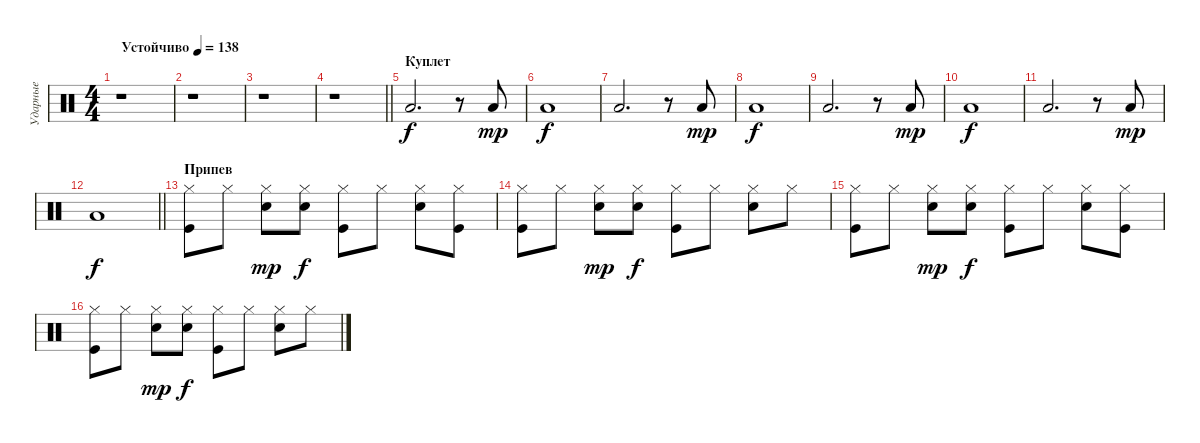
\track ("Ударные" "Ударные") {instrument percussion}
\staff {score}
\articulation defaults
\ts (4 4)
\tempo (138 "Устойчиво")
\clef neutral
\ks c
r.1{dy f} |
r.1 |
r.1 |
\barLineRight lightlight
r.1 |
\section ("" "Куплет")
"Low Floor Tom (hit)".2{d} r.8 "Low Floor Tom (hit)".8{dy mp} |
"Low Floor Tom (hit)".1{dy f} |
"Low Floor Tom (hit)".2{d} r.8 "Low Floor Tom (hit)".8{dy mp} |
"Low Floor Tom (hit)".1{dy f} |
"Low Floor Tom (hit)".2{d} r.8 "Low Floor Tom (hit)".8{dy mp} |
"Low Floor Tom (hit)".1{dy f} |
"Low Floor Tom (hit)".2{d} r.8 "Low Floor Tom (hit)".8{dy mp} |
\barLineRight lightlight "Low Floor Tom (hit)".1{dy f}
|
\section ("" "Припев")
("Hi-Hat (closed)" "Kick (hit)").8 "Hi-Hat (closed)".8 ("Hi-Hat (closed)" "Snare (hit) 2").8{dy mp} ("Hi-Hat (closed)" "Snare (hit) 2").8{dy f} ("Hi-Hat (closed)" "Kick (hit)").8 "Hi-Hat (closed)".8 ("Hi-Hat (closed)" "Snare (hit) 2").8 ("Hi-Hat (closed)" "Kick (hit)").8 |
("Hi-Hat (closed)" "Kick (hit)").8 "Hi-Hat (closed)".8 ("Hi-Hat (closed)" "Snare (hit) 2").8{dy mp} ("Hi-Hat (closed)" "Snare (hit) 2").8{dy f} ("Hi-Hat (closed)" "Kick (hit)").8 "Hi-Hat (closed)".8 ("Hi-Hat (closed)" "Snare (hit) 2").8 "Hi-Hat (closed)".8 |
("Hi-Hat (closed)" "Kick (hit)").8 "Hi-Hat (closed)".8 ("Hi-Hat (closed)" "Snare (hit) 2").8{dy mp} ("Hi-Hat (closed)" "Snare (hit) 2").8{dy f} ("Hi-Hat (closed)" "Kick (hit)").8 "Hi-Hat (closed)".8 ("Hi-Hat (closed)" "Snare (hit) 2").8 ("Hi-Hat (closed)" "Kick (hit)").8 |
("Hi-Hat (closed)" "Kick (hit)").8 "Hi-Hat (closed)".8 ("Hi-Hat (closed)" "Snare (hit) 2").8{dy mp} ("Hi-Hat (closed)" "Snare (hit) 2").8{dy f} ("Hi-Hat (closed)" "Kick (hit)").8 "Hi-Hat (closed)".8 ("Hi-Hat (closed)" "Snare (hit) 2").8 "Hi-Hat (closed)".8
